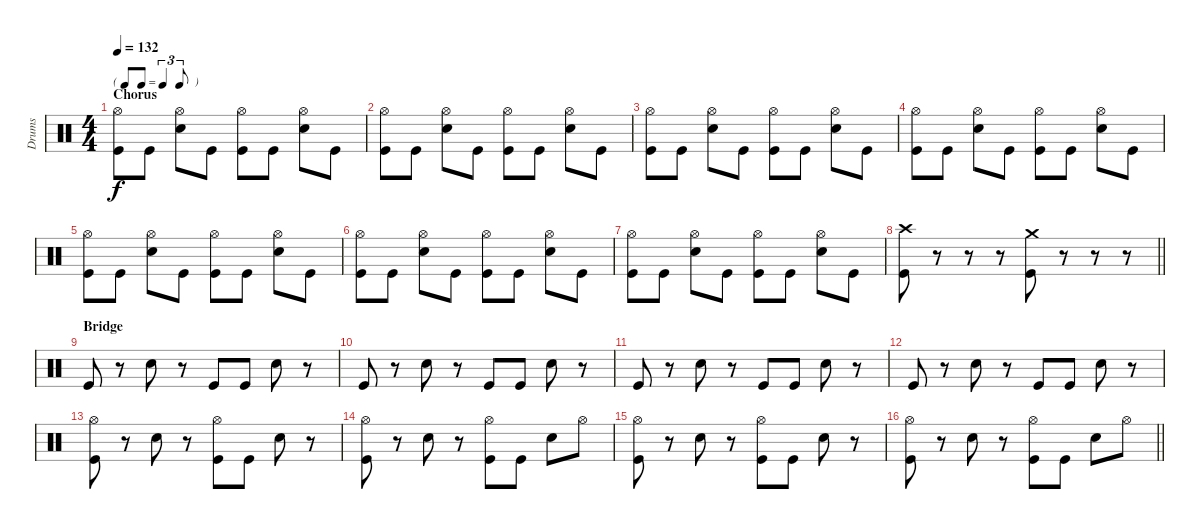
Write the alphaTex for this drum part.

\track ("Drums" "Drums") {instrument percussion}
\staff {score}
\articulation defaults
\ts (4 4)
\tf triplet8th
\section ("" "Chorus")
\tempo 132
\clef neutral
\ks c
("Hi-Hat (open)" "Kick (hit)").8{dy f} "Kick (hit)".8 ("Hi-Hat (open)" "Snare (hit) 2").8 "Kick (hit)".8 ("Hi-Hat (open)" "Kick (hit)").8 "Kick (hit)".8 ("Hi-Hat (open)" "Snare (hit) 2").8 "Kick (hit)".8 |
("Hi-Hat (open)" "Kick (hit)").8 "Kick (hit)".8 ("Hi-Hat (open)" "Snare (hit) 2").8 "Kick (hit)".8 ("Hi-Hat (open)" "Kick (hit)").8 "Kick (hit)".8 ("Hi-Hat (open)" "Snare (hit) 2").8 "Kick (hit)".8 |
("Hi-Hat (open)" "Kick (hit)").8 "Kick (hit)".8 ("Hi-Hat (open)" "Snare (hit) 2").8 "Kick (hit)".8 ("Hi-Hat (open)" "Kick (hit)").8 "Kick (hit)".8 ("Hi-Hat (open)" "Snare (hit) 2").8 "Kick (hit)".8 |
("Hi-Hat (open)" "Kick (hit)").8 "Kick (hit)".8 ("Hi-Hat (open)" "Snare (hit) 2").8 "Kick (hit)".8 ("Hi-Hat (open)" "Kick (hit)").8 "Kick (hit)".8 ("Hi-Hat (open)" "Snare (hit) 2").8 "Kick (hit)".8 |
("Hi-Hat (open)" "Kick (hit)").8 "Kick (hit)".8 ("Hi-Hat (open)" "Snare (hit) 2").8 "Kick (hit)".8 ("Hi-Hat (open)" "Kick (hit)").8 "Kick (hit)".8 ("Hi-Hat (open)" "Snare (hit) 2").8 "Kick (hit)".8 |
("Hi-Hat (open)" "Kick (hit)").8 "Kick (hit)".8 ("Hi-Hat (open)" "Snare (hit) 2").8 "Kick (hit)".8 ("Hi-Hat (open)" "Kick (hit)").8 "Kick (hit)".8 ("Hi-Hat (open)" "Snare (hit) 2").8 "Kick (hit)".8 |
("Hi-Hat (open)" "Kick (hit)").8 "Kick (hit)".8 ("Hi-Hat (open)" "Snare (hit) 2").8 "Kick (hit)".8 ("Hi-Hat (open)" "Kick (hit)").8 "Kick (hit)".8 ("Hi-Hat (open)" "Snare (hit) 2").8 "Kick (hit)".8 |
\barLineRight lightlight
("Crash high (hit)" "Kick (hit)").8 r.8 r.8 r.8 ("Crash medium (hit)" "Kick (hit)").8 r.8 r.8 r.8 |
\section ("" "Bridge")
"Kick (hit)".8 r.8 "Snare (hit) 2".8 r.8 "Kick (hit)".8 "Kick (hit)".8 "Snare (hit) 2".8 r.8 |
"Kick (hit)".8 r.8 "Snare (hit) 2".8 r.8 "Kick (hit)".8 "Kick (hit)".8 "Snare (hit) 2".8 r.8 |
"Kick (hit)".8 r.8 "Snare (hit) 2".8 r.8 "Kick (hit)".8 "Kick (hit)".8 "Snare (hit) 2".8 r.8 |
"Kick (hit)".8 r.8 "Snare (hit) 2".8 r.8 "Kick (hit)".8 "Kick (hit)".8 "Snare (hit) 2".8 r.8 |
("Hi-Hat (open)" "Kick (hit)").8 r.8 "Snare (hit) 2".8 r.8 ("Hi-Hat (open)" "Kick (hit)").8 "Kick (hit)".8 "Snare (hit) 2".8 r.8 |
("Hi-Hat (open)" "Kick (hit)").8 r.8 "Snare (hit) 2".8 r.8 ("Hi-Hat (open)" "Kick (hit)").8 "Kick (hit)".8 "Snare (hit) 2".8 "Hi-Hat (open)".8 |
("Hi-Hat (open)" "Kick (hit)").8 r.8 "Snare (hit) 2".8 r.8 ("Hi-Hat (open)" "Kick (hit)").8 "Kick (hit)".8 "Snare (hit) 2".8 r.8 |
\barLineRight lightlight
("Hi-Hat (open)" "Kick (hit)").8 r.8 "Snare (hit) 2".8 r.8 ("Hi-Hat (open)" "Kick (hit)").8 "Kick (hit)".8 "Snare (hit) 2".8 "Hi-Hat (open)".8
